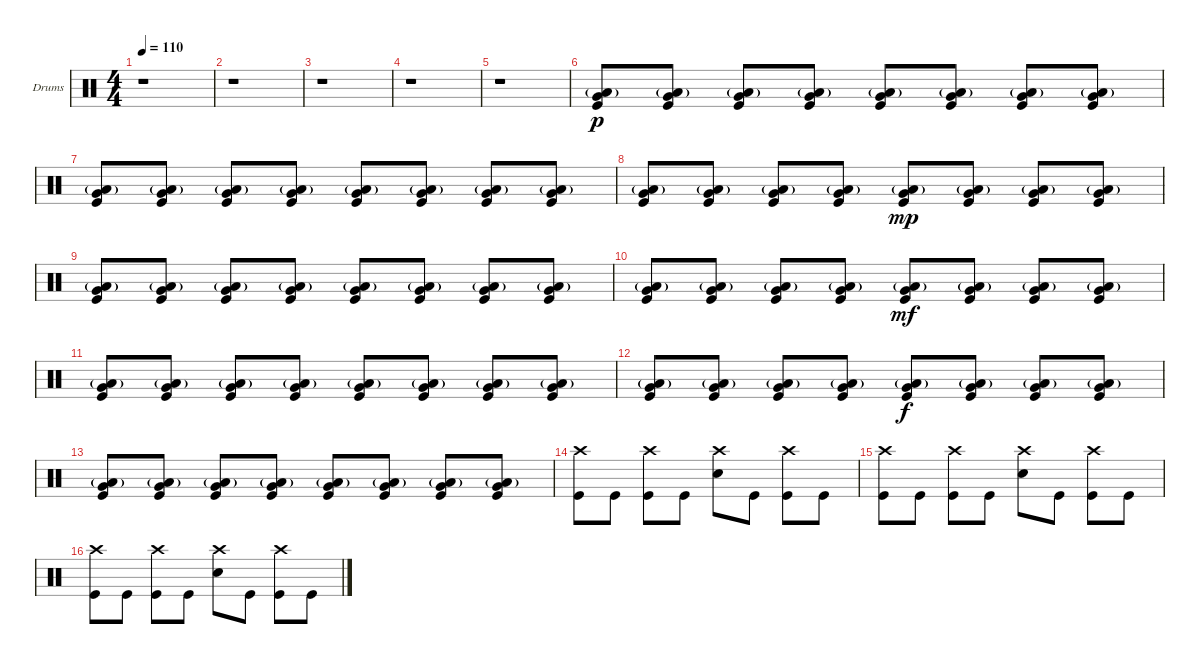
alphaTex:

\defaultSystemsLayout 4
\bracketExtendMode groupsimilarinstruments
\firstSystemTrackNameOrientation horizontal
\otherSystemsTrackNameOrientation horizontal
\track ("Drumkit" "Drums") {instrument percussion}
\staff {score}
\articulation defaults
\ts (4 4)
\tempo 110
\clef neutral
\scale
0.333333
\ks c
r.1{dy f} |
\scale
0.333333 r.1 |
\scale
0.333333 r.1 |
\scale
0.333333 r.1 |
\scale
0.333333 r.1 |
\scale
0.333333 ("Very Low Tom (hit)" "Low Tom (hit)"{g} "Kick (hit)").8{dy p} ("Very Low Tom (hit)" "Low Tom (hit)"{g} "Kick (hit)").8 ("Very Low Tom (hit)" "Low Tom (hit)"{g} "Kick (hit)").8 ("Very Low Tom (hit)" "Low Tom (hit)"{g} "Kick (hit)").8 ("Very Low Tom (hit)" "Low Tom (hit)"{g} "Kick (hit)").8 ("Very Low Tom (hit)" "Low Tom (hit)"{g} "Kick (hit)").8 ("Very Low Tom (hit)" "Low Tom (hit)"{g} "Kick (hit)").8 ("Very Low Tom (hit)" "Low Tom (hit)"{g} "Kick (hit)").8 |
\scale
0.333333 ("Very Low Tom (hit)" "Low Tom (hit)"{g} "Kick (hit)").8 ("Very Low Tom (hit)" "Low Tom (hit)"{g} "Kick (hit)").8 ("Very Low Tom (hit)" "Low Tom (hit)"{g} "Kick (hit)").8 ("Very Low Tom (hit)" "Low Tom (hit)"{g} "Kick (hit)").8 ("Very Low Tom (hit)" "Low Tom (hit)"{g} "Kick (hit)").8 ("Very Low Tom (hit)" "Low Tom (hit)"{g} "Kick (hit)").8 ("Very Low Tom (hit)" "Low Tom (hit)"{g} "Kick (hit)").8 ("Very Low Tom (hit)" "Low Tom (hit)"{g} "Kick (hit)").8 |
\scale
0.333333 ("Very Low Tom (hit)" "Low Tom (hit)"{g} "Kick (hit)").8 ("Very Low Tom (hit)" "Low Tom (hit)"{g} "Kick (hit)").8 ("Very Low Tom (hit)" "Low Tom (hit)"{g} "Kick (hit)").8 ("Very Low Tom (hit)" "Low Tom (hit)"{g} "Kick (hit)").8 ("Very Low Tom (hit)" "Low Tom (hit)"{g} "Kick (hit)").8{dy mp} ("Very Low Tom (hit)" "Low Tom (hit)"{g} "Kick (hit)").8 ("Very Low Tom (hit)" "Low Tom (hit)"{g} "Kick (hit)").8 ("Very Low Tom (hit)" "Low Tom (hit)"{g} "Kick (hit)").8 |
\scale
0.333333 ("Very Low Tom (hit)" "Low Tom (hit)"{g} "Kick (hit)").8 ("Very Low Tom (hit)" "Low Tom (hit)"{g} "Kick (hit)").8 ("Very Low Tom (hit)" "Low Tom (hit)"{g} "Kick (hit)").8 ("Very Low Tom (hit)" "Low Tom (hit)"{g} "Kick (hit)").8 ("Very Low Tom (hit)" "Low Tom (hit)"{g} "Kick (hit)").8 ("Very Low Tom (hit)" "Low Tom (hit)"{g} "Kick (hit)").8 ("Very Low Tom (hit)" "Low Tom (hit)"{g} "Kick (hit)").8 ("Very Low Tom (hit)" "Low Tom (hit)"{g} "Kick (hit)").8 |
\scale
0.333333 ("Very Low Tom (hit)" "Low Tom (hit)"{g} "Kick (hit)").8 ("Very Low Tom (hit)" "Low Tom (hit)"{g} "Kick (hit)").8 ("Very Low Tom (hit)" "Low Tom (hit)"{g} "Kick (hit)").8 ("Very Low Tom (hit)" "Low Tom (hit)"{g} "Kick (hit)").8 ("Very Low Tom (hit)" "Low Tom (hit)"{g} "Kick (hit)").8{dy mf} ("Very Low Tom (hit)" "Low Tom (hit)"{g} "Kick (hit)").8 ("Very Low Tom (hit)" "Low Tom (hit)"{g} "Kick (hit)").8 ("Very Low Tom (hit)" "Low Tom (hit)"{g} "Kick (hit)").8 |
\scale
0.333333 ("Very Low Tom (hit)" "Low Tom (hit)"{g} "Kick (hit)").8 ("Very Low Tom (hit)" "Low Tom (hit)"{g} "Kick (hit)").8 ("Very Low Tom (hit)" "Low Tom (hit)"{g} "Kick (hit)").8 ("Very Low Tom (hit)" "Low Tom (hit)"{g} "Kick (hit)").8 ("Very Low Tom (hit)" "Low Tom (hit)"{g} "Kick (hit)").8 ("Very Low Tom (hit)" "Low Tom (hit)"{g} "Kick (hit)").8 ("Very Low Tom (hit)" "Low Tom (hit)"{g} "Kick (hit)").8 ("Very Low Tom (hit)" "Low Tom (hit)"{g} "Kick (hit)").8 |
\scale
0.333333 ("Very Low Tom (hit)" "Low Tom (hit)"{g} "Kick (hit)").8 ("Very Low Tom (hit)" "Low Tom (hit)"{g} "Kick (hit)").8 ("Very Low Tom (hit)" "Low Tom (hit)"{g} "Kick (hit)").8 ("Very Low Tom (hit)" "Low Tom (hit)"{g} "Kick (hit)").8 ("Very Low Tom (hit)" "Low Tom (hit)"{g} "Kick (hit)").8{dy f} ("Very Low Tom (hit)" "Low Tom (hit)"{g} "Kick (hit)").8 ("Very Low Tom (hit)" "Low Tom (hit)"{g} "Kick (hit)").8 ("Very Low Tom (hit)" "Low Tom (hit)"{g} "Kick (hit)").8 |
\scale
0.333333 ("Very Low Tom (hit)" "Low Tom (hit)"{g} "Kick (hit)").8 ("Very Low Tom (hit)" "Low Tom (hit)"{g} "Kick (hit)").8 ("Very Low Tom (hit)" "Low Tom (hit)"{g} "Kick (hit)").8 ("Very Low Tom (hit)" "Low Tom (hit)"{g} "Kick (hit)").8 ("Very Low Tom (hit)" "Low Tom (hit)"{g} "Kick (hit)").8 ("Very Low Tom (hit)" "Low Tom (hit)"{g} "Kick (hit)").8 ("Very Low Tom (hit)" "Low Tom (hit)"{g} "Kick (hit)").8 ("Very Low Tom (hit)" "Low Tom (hit)"{g} "Kick (hit)").8 |
\scale
0.333333 ("Crash high (hit)" "Kick (hit)").8 "Kick (hit)".8 ("Crash high (hit)" "Kick (hit)").8 "Kick (hit)".8 ("Crash high (hit)" "Snare (hit) 2").8 "Kick (hit)".8 ("Crash high (hit)" "Kick (hit)").8 "Kick (hit)".8 |
\scale
0.333333 ("Crash high (hit)" "Kick (hit)").8 "Kick (hit)".8 ("Crash high (hit)" "Kick (hit)").8 "Kick (hit)".8 ("Crash high (hit)" "Snare (hit) 2").8 "Kick (hit)".8 ("Crash high (hit)" "Kick (hit)").8 "Kick (hit)".8 |
\scale
0.333333 ("Crash high (hit)" "Kick (hit)").8 "Kick (hit)".8 ("Crash high (hit)" "Kick (hit)").8 "Kick (hit)".8 ("Crash high (hit)" "Snare (hit) 2").8 "Kick (hit)".8 ("Crash high (hit)" "Kick (hit)").8 "Kick (hit)".8
